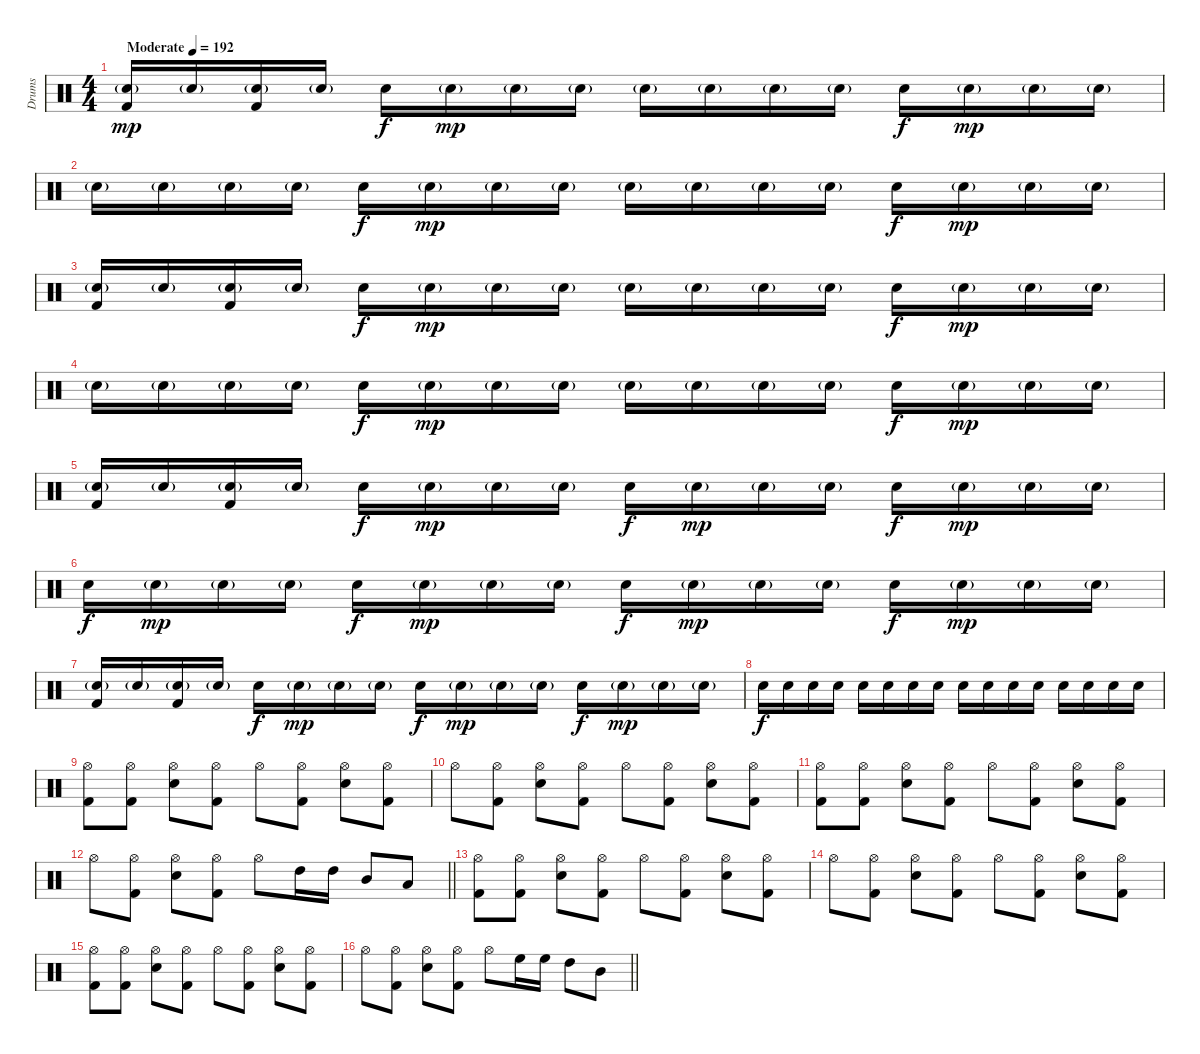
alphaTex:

\track ("Drums" "Drums") {instrument percussion}
\staff {score}
\articulation defaults
\ts (4 4)
\section ("" "")
\tempo (192 "Moderate")
\clef neutral
\ks c
("Electric Snare (hit)"{g} "Kick (hit) 2").16{dy mp} "Electric Snare (hit)"{g}.16 ("Electric Snare (hit)"{g} "Kick (hit) 2").16 "Electric Snare (hit)"{g}.16 "Electric Snare (hit)".16{dy f} "Electric Snare (hit)"{g}.16{dy mp} "Electric Snare (hit)"{g}.16 "Electric Snare (hit)"{g}.16 "Electric Snare (hit)"{g}.16 "Electric Snare (hit)"{g}.16 "Electric Snare (hit)"{g}.16 "Electric Snare (hit)"{g}.16 "Electric Snare (hit)".16{dy f} "Electric Snare (hit)"{g}.16{dy mp} "Electric Snare (hit)"{g}.16 "Electric Snare (hit)"{g}.16 |
"Electric Snare (hit)"{g}.16 "Electric Snare (hit)"{g}.16 "Electric Snare (hit)"{g}.16 "Electric Snare (hit)"{g}.16 "Electric Snare (hit)".16{dy f} "Electric Snare (hit)"{g}.16{dy mp} "Electric Snare (hit)"{g}.16 "Electric Snare (hit)"{g}.16 "Electric Snare (hit)"{g}.16 "Electric Snare (hit)"{g}.16 "Electric Snare (hit)"{g}.16 "Electric Snare (hit)"{g}.16 "Electric Snare (hit)".16{dy f} "Electric Snare (hit)"{g}.16{dy mp} "Electric Snare (hit)"{g}.16 "Electric Snare (hit)"{g}.16 |
("Electric Snare (hit)"{g} "Kick (hit) 2").16 "Electric Snare (hit)"{g}.16 ("Electric Snare (hit)"{g} "Kick (hit) 2").16 "Electric Snare (hit)"{g}.16 "Electric Snare (hit)".16{dy f} "Electric Snare (hit)"{g}.16{dy mp} "Electric Snare (hit)"{g}.16 "Electric Snare (hit)"{g}.16 "Electric Snare (hit)"{g}.16 "Electric Snare (hit)"{g}.16 "Electric Snare (hit)"{g}.16 "Electric Snare (hit)"{g}.16 "Electric Snare (hit)".16{dy f} "Electric Snare (hit)"{g}.16{dy mp} "Electric Snare (hit)"{g}.16 "Electric Snare (hit)"{g}.16 |
"Electric Snare (hit)"{g}.16 "Electric Snare (hit)"{g}.16 "Electric Snare (hit)"{g}.16 "Electric Snare (hit)"{g}.16 "Electric Snare (hit)".16{dy f} "Electric Snare (hit)"{g}.16{dy mp} "Electric Snare (hit)"{g}.16 "Electric Snare (hit)"{g}.16 "Electric Snare (hit)"{g}.16 "Electric Snare (hit)"{g}.16 "Electric Snare (hit)"{g}.16 "Electric Snare (hit)"{g}.16 "Electric Snare (hit)".16{dy f} "Electric Snare (hit)"{g}.16{dy mp} "Electric Snare (hit)"{g}.16 "Electric Snare (hit)"{g}.16 |
("Electric Snare (hit)"{g} "Kick (hit) 2").16 "Electric Snare (hit)"{g}.16 ("Electric Snare (hit)"{g} "Kick (hit) 2").16 "Electric Snare (hit)"{g}.16 "Electric Snare (hit)".16{dy f} "Electric Snare (hit)"{g}.16{dy mp} "Electric Snare (hit)"{g}.16 "Electric Snare (hit)"{g}.16 "Electric Snare (hit)".16{dy f} "Electric Snare (hit)"{g}.16{dy mp} "Electric Snare (hit)"{g}.16 "Electric Snare (hit)"{g}.16 "Electric Snare (hit)".16{dy f} "Electric Snare (hit)"{g}.16{dy mp} "Electric Snare (hit)"{g}.16 "Electric Snare (hit)"{g}.16 |
"Electric Snare (hit)".16{dy f} "Electric Snare (hit)"{g}.16{dy mp} "Electric Snare (hit)"{g}.16 "Electric Snare (hit)"{g}.16 "Electric Snare (hit)".16{dy f} "Electric Snare (hit)"{g}.16{dy mp} "Electric Snare (hit)"{g}.16 "Electric Snare (hit)"{g}.16 "Electric Snare (hit)".16{dy f} "Electric Snare (hit)"{g}.16{dy mp} "Electric Snare (hit)"{g}.16 "Electric Snare (hit)"{g}.16 "Electric Snare (hit)".16{dy f} "Electric Snare (hit)"{g}.16{dy mp} "Electric Snare (hit)"{g}.16 "Electric Snare (hit)"{g}.16 |
("Electric Snare (hit)"{g} "Kick (hit) 2").16 "Electric Snare (hit)"{g}.16 ("Electric Snare (hit)"{g} "Kick (hit) 2").16 "Electric Snare (hit)"{g}.16 "Electric Snare (hit)".16{dy f} "Electric Snare (hit)"{g}.16{dy mp} "Electric Snare (hit)"{g}.16 "Electric Snare (hit)"{g}.16 "Electric Snare (hit)".16{dy f} "Electric Snare (hit)"{g}.16{dy mp} "Electric Snare (hit)"{g}.16 "Electric Snare (hit)"{g}.16 "Electric Snare (hit)".16{dy f} "Electric Snare (hit)"{g}.16{dy mp} "Electric Snare (hit)"{g}.16 "Electric Snare (hit)"{g}.16 |
"Electric Snare (hit)".16{dy f volume 13} "Electric Snare (hit)".16 "Electric Snare (hit)".16 "Electric Snare (hit)".16 "Electric Snare (hit)".16 "Electric Snare (hit)".16 "Electric Snare (hit)".16 "Electric Snare (hit)".16 "Electric Snare (hit)".16 "Electric Snare (hit)".16 "Electric Snare (hit)".16 "Electric Snare (hit)".16 "Electric Snare (hit)".16 "Electric Snare (hit)".16 "Electric Snare (hit)".16 "Electric Snare (hit)".16 |
("Hi-Hat (open)" "Kick (hit) 2").8 ("Hi-Hat (open)" "Kick (hit) 2").8 ("Hi-Hat (open)" "Electric Snare (hit)").8 ("Hi-Hat (open)" "Kick (hit) 2").8 "Hi-Hat (open)".8 ("Hi-Hat (open)" "Kick (hit) 2").8 ("Hi-Hat (open)" "Electric Snare (hit)").8 ("Hi-Hat (open)" "Kick (hit) 2").8 |
"Hi-Hat (open)".8 ("Hi-Hat (open)" "Kick (hit) 2").8 ("Hi-Hat (open)" "Electric Snare (hit)").8 ("Hi-Hat (open)" "Kick (hit) 2").8 "Hi-Hat (open)".8 ("Hi-Hat (open)" "Kick (hit) 2").8 ("Hi-Hat (open)" "Electric Snare (hit)").8 ("Hi-Hat (open)" "Kick (hit) 2").8 |
("Hi-Hat (open)" "Kick (hit) 2").8 ("Hi-Hat (open)" "Kick (hit) 2").8 ("Hi-Hat (open)" "Electric Snare (hit)").8 ("Hi-Hat (open)" "Kick (hit) 2").8 "Hi-Hat (open)".8 ("Hi-Hat (open)" "Kick (hit) 2").8 ("Hi-Hat (open)" "Electric Snare (hit)").8 ("Hi-Hat (open)" "Kick (hit) 2").8 |
\barLineRight lightlight "Hi-Hat (open)".8
("Hi-Hat (open)" "Kick (hit) 2").8 ("Hi-Hat (open)" "Electric Snare (hit)").8 ("Hi-Hat (open)" "Kick (hit) 2").8 "Hi-Hat (open)".8 "High Tom (hit)".16 "High Tom (hit)".16 "Mid Tom (hit)".8 "Low Tom (hit)".8 |
("Hi-Hat (open)" "Kick (hit) 2").8 ("Hi-Hat (open)" "Kick (hit) 2").8 ("Hi-Hat (open)" "Electric Snare (hit)").8 ("Hi-Hat (open)" "Kick (hit) 2").8 "Hi-Hat (open)".8 ("Hi-Hat (open)" "Kick (hit) 2").8 ("Hi-Hat (open)" "Electric Snare (hit)").8 ("Hi-Hat (open)" "Kick (hit) 2").8 |
"Hi-Hat (open)".8 ("Hi-Hat (open)" "Kick (hit) 2").8 ("Hi-Hat (open)" "Electric Snare (hit)").8 ("Hi-Hat (open)" "Kick (hit) 2").8 "Hi-Hat (open)".8 ("Hi-Hat (open)" "Kick (hit) 2").8 ("Hi-Hat (open)" "Electric Snare (hit)").8 ("Hi-Hat (open)" "Kick (hit) 2").8 |
("Hi-Hat (open)" "Kick (hit) 2").8 ("Hi-Hat (open)" "Kick (hit) 2").8 ("Hi-Hat (open)" "Electric Snare (hit)").8 ("Hi-Hat (open)" "Kick (hit) 2").8 "Hi-Hat (open)".8 ("Hi-Hat (open)" "Kick (hit) 2").8 ("Hi-Hat (open)" "Electric Snare (hit)").8 ("Hi-Hat (open)" "Kick (hit) 2").8 |
\barLineRight lightlight "Hi-Hat (open)".8
("Hi-Hat (open)" "Kick (hit) 2").8 ("Hi-Hat (open)" "Electric Snare (hit)").8 ("Hi-Hat (open)" "Kick (hit) 2").8 "Hi-Hat (open)".8 "High Floor Tom (hit)".16 "High Floor Tom (hit)".16 "High Tom (hit)".8 "Mid Tom (hit)".8
